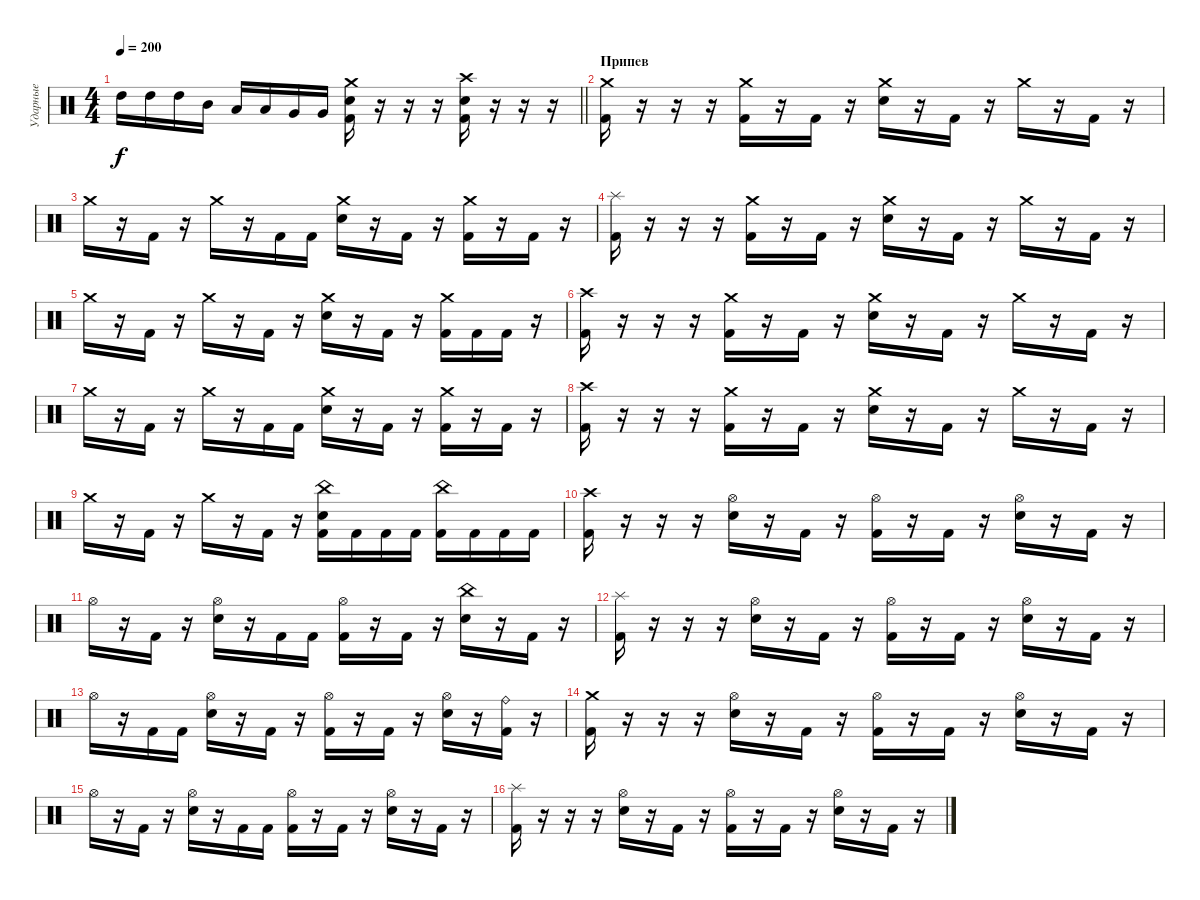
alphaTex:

\track ("Ударные" "Ударные") {instrument percussion}
\staff {score}
\articulation defaults
\ts (4 4)
\tempo 200
\clef neutral
\barLineRight lightlight
\ks c "High Tom (hit)".16{dy f} "High Tom (hit)".16 "High Tom (hit)".16 "Mid Tom (hit)".16 "Low Tom (hit)".16 "Low Tom (hit)".16 "Very Low Tom (hit)".16 "Very Low Tom (hit)".16
("Kick (hit) 2" "Electric Snare (hit)" "Crash medium (hit)").16 r.16 r.16 r.16 ("Kick (hit) 2" "Electric Snare (hit)" "Crash high (hit)").16 r.16 r.16 r.16 |
\section ("" "Припев")
("Kick (hit) 2" "Crash medium (hit)").16 r.16 r.16 r.16 ("Kick (hit) 2" "Crash medium (hit)").16 r.16 "Kick (hit) 2".16 r.16 ("Electric Snare (hit)" "Crash medium (hit)").16 r.16 "Kick (hit) 2".16 r.16 "Crash medium (hit)".16 r.16 "Kick (hit) 2".16 r.16 |
"Crash medium (hit)".16 r.16 "Kick (hit) 2".16 r.16 "Crash medium (hit)".16 r.16 "Kick (hit) 2".16 "Kick (hit) 2".16 ("Electric Snare (hit)" "Crash medium (hit)").16 r.16 "Kick (hit) 2".16 r.16 ("Kick (hit) 2" "Crash medium (hit)").16 r.16 "Kick (hit) 2".16 r.16 |
("Kick (hit) 2" "Splash (hit)").16 r.16 r.16 r.16 ("Kick (hit) 2" "Crash medium (hit)").16 r.16 "Kick (hit) 2".16 r.16 ("Electric Snare (hit)" "Crash medium (hit)").16 r.16 "Kick (hit) 2".16 r.16 "Crash medium (hit)".16 r.16 "Kick (hit) 2".16 r.16 |
"Crash medium (hit)".16 r.16 "Kick (hit) 2".16 r.16 "Crash medium (hit)".16 r.16 "Kick (hit) 2".16 r.16 ("Electric Snare (hit)" "Crash medium (hit)").16 r.16 "Kick (hit) 2".16 r.16 ("Kick (hit) 2" "Crash medium (hit)").16 "Kick (hit) 2".16 "Kick (hit) 2".16 r.16 |
("Kick (hit) 2" "Crash high (hit)").16 r.16 r.16 r.16 ("Kick (hit) 2" "Crash medium (hit)").16 r.16 "Kick (hit) 2".16 r.16 ("Electric Snare (hit)" "Crash medium (hit)").16 r.16 "Kick (hit) 2".16 r.16 "Crash medium (hit)".16 r.16 "Kick (hit) 2".16 r.16 |
"Crash medium (hit)".16 r.16 "Kick (hit) 2".16 r.16 "Crash medium (hit)".16 r.16 "Kick (hit) 2".16 "Kick (hit) 2".16 ("Electric Snare (hit)" "Crash medium (hit)").16 r.16 "Kick (hit) 2".16 r.16 ("Kick (hit) 2" "Crash medium (hit)").16 r.16 "Kick (hit) 2".16 r.16 |
("Kick (hit) 2" "Crash high (hit)").16 r.16 r.16 r.16 ("Kick (hit) 2" "Crash medium (hit)").16 r.16 "Kick (hit) 2".16 r.16 ("Electric Snare (hit)" "Crash medium (hit)").16 r.16 "Kick (hit) 2".16 r.16 "Crash medium (hit)".16 r.16 "Kick (hit) 2".16 r.16 |
"Crash medium (hit)".16 r.16 "Kick (hit) 2".16 r.16 "Crash medium (hit)".16 r.16 "Kick (hit) 2".16 r.16 ("Kick (hit) 2" "Electric Snare (hit)" "China (hit)").16 "Kick (hit) 2".16 "Kick (hit) 2".16 "Kick (hit) 2".16 ("Kick (hit) 2" "China (hit)").16 "Kick (hit) 2".16 "Kick (hit) 2".16 "Kick (hit) 2".16 |
("Kick (hit) 2" "Crash high (hit)").16 r.16 r.16 r.16 ("Electric Snare (hit)" "Hi-Hat (open)").16 r.16 "Kick (hit) 2".16 r.16 ("Kick (hit) 2" "Hi-Hat (open)").16 r.16 "Kick (hit) 2".16 r.16 ("Electric Snare (hit)" "Hi-Hat (open)").16 r.16 "Kick (hit) 2".16 r.16 |
"Hi-Hat (open)".16 r.16 "Kick (hit) 2".16 r.16 ("Electric Snare (hit)" "Hi-Hat (open)").16 r.16 "Kick (hit) 2".16 "Kick (hit) 2".16 ("Kick (hit) 2" "Hi-Hat (open)").16 r.16 "Kick (hit) 2".16 r.16 ("Electric Snare (hit)" "China (hit)").16 r.16 "Kick (hit) 2".16 r.16 |
("Kick (hit) 2" "Splash (hit)").16 r.16 r.16 r.16 ("Electric Snare (hit)" "Hi-Hat (open)").16 r.16 "Kick (hit) 2".16 r.16 ("Kick (hit) 2" "Hi-Hat (open)").16 r.16 "Kick (hit) 2".16 r.16 ("Electric Snare (hit)" "Hi-Hat (open)").16 r.16 "Kick (hit) 2".16 r.16 |
"Hi-Hat (open)".16 r.16 "Kick (hit) 2".16 "Kick (hit) 2".16 ("Electric Snare (hit)" "Hi-Hat (open)").16 r.16 "Kick (hit) 2".16 r.16 ("Kick (hit) 2" "Hi-Hat (open)").16 r.16 "Kick (hit) 2".16 r.16 ("Electric Snare (hit)" "Hi-Hat (open)").16 r.16 ("Kick (hit) 2" "Ride (bell)").16 r.16 |
("Kick (hit) 2" "Crash medium (hit)").16 r.16 r.16 r.16 ("Electric Snare (hit)" "Hi-Hat (open)").16 r.16 "Kick (hit) 2".16 r.16 ("Kick (hit) 2" "Hi-Hat (open)").16 r.16 "Kick (hit) 2".16 r.16 ("Electric Snare (hit)" "Hi-Hat (open)").16 r.16 "Kick (hit) 2".16 r.16 |
"Hi-Hat (open)".16 r.16 "Kick (hit) 2".16 r.16 ("Electric Snare (hit)" "Hi-Hat (open)").16 r.16 "Kick (hit) 2".16 "Kick (hit) 2".16 ("Kick (hit) 2" "Hi-Hat (open)").16 r.16 "Kick (hit) 2".16 r.16 ("Electric Snare (hit)" "Hi-Hat (open)").16 r.16 "Kick (hit) 2".16 r.16 |
("Kick (hit) 2" "Splash (hit)").16 r.16 r.16 r.16 ("Electric Snare (hit)" "Hi-Hat (open)").16 r.16 "Kick (hit) 2".16 r.16 ("Kick (hit) 2" "Hi-Hat (open)").16 r.16 "Kick (hit) 2".16 r.16 ("Electric Snare (hit)" "Hi-Hat (open)").16 r.16 "Kick (hit) 2".16 r.16
